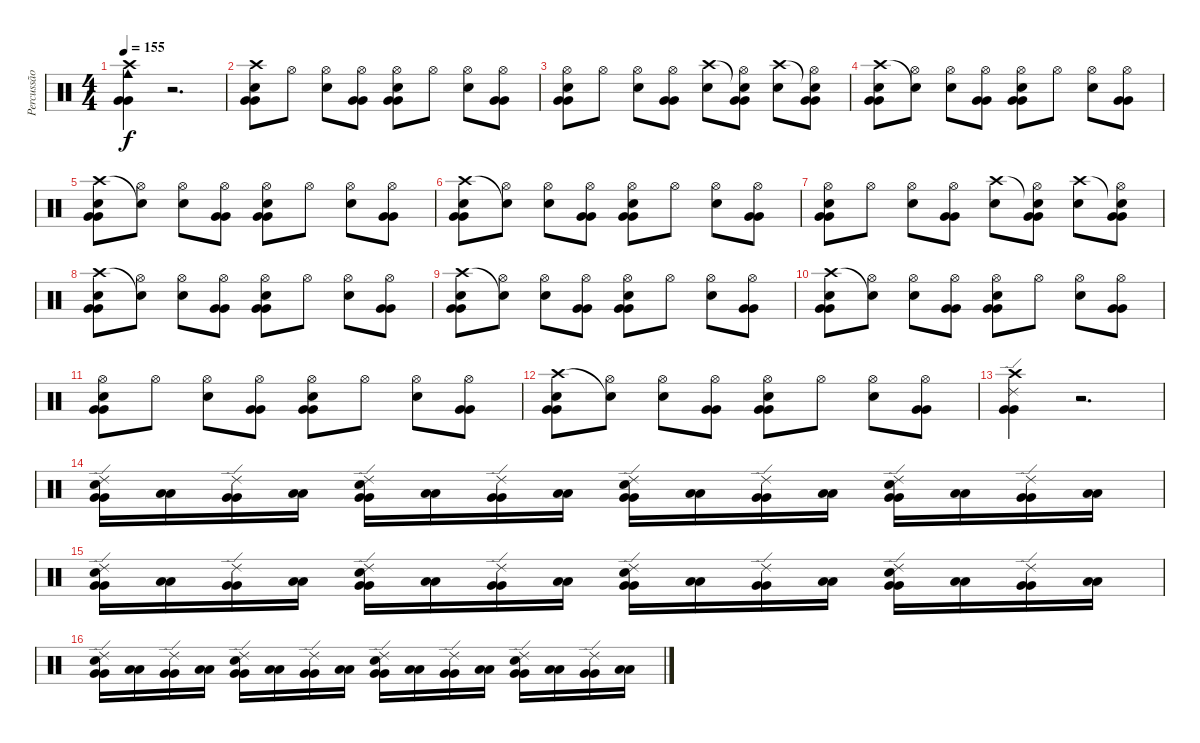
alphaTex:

\track ("Percussão" "Percussão") {instrument percussion}
\staff {score}
\articulation defaults
\ts (4 4)
\tempo 155
\clef neutral
\ks c
("Crash high (hit)" "Cowbell medium (hit)" "Very Low Tom (hit)" "Very Low Tom (hit)").4{dy f} r.2{d} |
("Crash high (hit)" "Electric Snare (hit)" "Very Low Tom (hit)" "Very Low Tom (hit)").8 "Hi-Hat (open)".8 ("Hi-Hat (open)" "Electric Snare (hit)").8 ("Hi-Hat (open)" "Very Low Tom (hit)" "Very Low Tom (hit)").8 ("Hi-Hat (open)" "Electric Snare (hit)" "Very Low Tom (hit)" "Very Low Tom (hit)").8 "Hi-Hat (open)".8 ("Hi-Hat (open)" "Electric Snare (hit)").8 ("Hi-Hat (open)" "Very Low Tom (hit)" "Very Low Tom (hit)").8 |
("Hi-Hat (open)" "Electric Snare (hit)" "Very Low Tom (hit)" "Very Low Tom (hit)").8 "Hi-Hat (open)".8 ("Hi-Hat (open)" "Electric Snare (hit)").8 ("Hi-Hat (open)" "Very Low Tom (hit)" "Very Low Tom (hit)").8 ("Crash high (hit)" "Electric Snare (hit)").8 ("Snare (hit)"{t} "Hi-Hat (open)" "Very Low Tom (hit)" "Very Low Tom (hit)").8 ("Crash high (hit)" "Electric Snare (hit)").8 ("Snare (hit)"{t} "Hi-Hat (open)" "Very Low Tom (hit)" "Very Low Tom (hit)").8 |
("Crash high (hit)" "Electric Snare (hit)" "Very Low Tom (hit)" "Very Low Tom (hit)").8 ("Snare (hit)"{t} "Hi-Hat (open)").8 ("Hi-Hat (open)" "Electric Snare (hit)").8 ("Hi-Hat (open)" "Very Low Tom (hit)" "Very Low Tom (hit)").8 ("Hi-Hat (open)" "Electric Snare (hit)" "Very Low Tom (hit)" "Very Low Tom (hit)").8 "Hi-Hat (open)".8 ("Hi-Hat (open)" "Electric Snare (hit)").8 ("Hi-Hat (open)" "Very Low Tom (hit)" "Very Low Tom (hit)").8 |
("Crash high (hit)" "Electric Snare (hit)" "Very Low Tom (hit)" "Very Low Tom (hit)").8 ("Snare (hit)"{t} "Hi-Hat (open)").8 ("Hi-Hat (open)" "Electric Snare (hit)").8 ("Hi-Hat (open)" "Very Low Tom (hit)" "Very Low Tom (hit)").8 ("Hi-Hat (open)" "Electric Snare (hit)" "Very Low Tom (hit)" "Very Low Tom (hit)").8 "Hi-Hat (open)".8 ("Hi-Hat (open)" "Electric Snare (hit)").8 ("Hi-Hat (open)" "Very Low Tom (hit)" "Very Low Tom (hit)").8 |
("Crash high (hit)" "Electric Snare (hit)" "Very Low Tom (hit)" "Very Low Tom (hit)").8 ("Snare (hit)"{t} "Hi-Hat (open)").8 ("Hi-Hat (open)" "Electric Snare (hit)").8 ("Hi-Hat (open)" "Very Low Tom (hit)" "Very Low Tom (hit)").8 ("Hi-Hat (open)" "Electric Snare (hit)" "Very Low Tom (hit)" "Very Low Tom (hit)").8 "Hi-Hat (open)".8 ("Hi-Hat (open)" "Electric Snare (hit)").8 ("Hi-Hat (open)" "Very Low Tom (hit)" "Very Low Tom (hit)").8 |
("Hi-Hat (open)" "Electric Snare (hit)" "Very Low Tom (hit)" "Very Low Tom (hit)").8 "Hi-Hat (open)".8 ("Hi-Hat (open)" "Electric Snare (hit)").8 ("Hi-Hat (open)" "Very Low Tom (hit)" "Very Low Tom (hit)").8 ("Crash high (hit)" "Electric Snare (hit)").8 ("Snare (hit)"{t} "Hi-Hat (open)" "Very Low Tom (hit)" "Very Low Tom (hit)").8 ("Crash high (hit)" "Electric Snare (hit)").8 ("Snare (hit)"{t} "Hi-Hat (open)" "Very Low Tom (hit)" "Very Low Tom (hit)").8 |
("Crash high (hit)" "Electric Snare (hit)" "Very Low Tom (hit)" "Very Low Tom (hit)").8 ("Snare (hit)"{t} "Hi-Hat (open)").8 ("Hi-Hat (open)" "Electric Snare (hit)").8 ("Hi-Hat (open)" "Very Low Tom (hit)" "Very Low Tom (hit)").8 ("Hi-Hat (open)" "Electric Snare (hit)" "Very Low Tom (hit)" "Very Low Tom (hit)").8 "Hi-Hat (open)".8 ("Hi-Hat (open)" "Electric Snare (hit)").8 ("Hi-Hat (open)" "Very Low Tom (hit)" "Very Low Tom (hit)").8 |
("Crash high (hit)" "Electric Snare (hit)" "Very Low Tom (hit)" "Very Low Tom (hit)").8 ("Snare (hit)"{t} "Hi-Hat (open)").8 ("Hi-Hat (open)" "Electric Snare (hit)").8 ("Hi-Hat (open)" "Very Low Tom (hit)" "Very Low Tom (hit)").8 ("Hi-Hat (open)" "Electric Snare (hit)" "Very Low Tom (hit)" "Very Low Tom (hit)").8 "Hi-Hat (open)".8 ("Hi-Hat (open)" "Electric Snare (hit)").8 ("Hi-Hat (open)" "Very Low Tom (hit)" "Very Low Tom (hit)").8 |
("Crash high (hit)" "Electric Snare (hit)" "Very Low Tom (hit)" "Very Low Tom (hit)").8 ("Snare (hit)"{t} "Hi-Hat (open)").8 ("Hi-Hat (open)" "Electric Snare (hit)").8 ("Hi-Hat (open)" "Very Low Tom (hit)" "Very Low Tom (hit)").8 ("Hi-Hat (open)" "Electric Snare (hit)" "Very Low Tom (hit)" "Very Low Tom (hit)").8 "Hi-Hat (open)".8 ("Hi-Hat (open)" "Electric Snare (hit)").8 ("Hi-Hat (open)" "Very Low Tom (hit)" "Very Low Tom (hit)").8 |
("Hi-Hat (open)" "Electric Snare (hit)" "Very Low Tom (hit)" "Very Low Tom (hit)").8 "Hi-Hat (open)".8 ("Hi-Hat (open)" "Electric Snare (hit)").8 ("Hi-Hat (open)" "Very Low Tom (hit)" "Very Low Tom (hit)").8 ("Hi-Hat (open)" "Electric Snare (hit)" "Very Low Tom (hit)" "Very Low Tom (hit)").8 "Hi-Hat (open)".8 ("Hi-Hat (open)" "Electric Snare (hit)").8 ("Hi-Hat (open)" "Very Low Tom (hit)" "Very Low Tom (hit)").8 |
("Crash high (hit)" "Electric Snare (hit)" "Very Low Tom (hit)" "Very Low Tom (hit)").8 ("Snare (hit)"{t} "Hi-Hat (open)").8 ("Hi-Hat (open)" "Electric Snare (hit)").8 ("Hi-Hat (open)" "Very Low Tom (hit)" "Very Low Tom (hit)").8 ("Hi-Hat (open)" "Electric Snare (hit)" "Very Low Tom (hit)" "Very Low Tom (hit)").8 "Hi-Hat (open)".8 ("Hi-Hat (open)" "Electric Snare (hit)").8 ("Hi-Hat (open)" "Very Low Tom (hit)" "Very Low Tom (hit)").8 |
("Crash high (hit)" "Ride (edge) 2" "Very Low Tom (hit)" "Very Low Tom (hit)").4 r.2{d} |
("Electric Snare (hit)" "Ride (edge) 2" "Very Low Tom (hit)" "Very Low Tom (hit)").16 ("Low Floor Tom (hit)" "Low Floor Tom (hit)").16 ("Ride (edge) 2" "Very Low Tom (hit)" "Very Low Tom (hit)").16 ("Low Floor Tom (hit)" "Low Floor Tom (hit)").16 ("Electric Snare (hit)" "Ride (edge) 2" "Very Low Tom (hit)" "Very Low Tom (hit)").16 ("Low Floor Tom (hit)" "Low Floor Tom (hit)").16 ("Ride (edge) 2" "Very Low Tom (hit)" "Very Low Tom (hit)").16 ("Low Floor Tom (hit)" "Low Floor Tom (hit)").16 ("Electric Snare (hit)" "Ride (edge) 2" "Very Low Tom (hit)" "Very Low Tom (hit)").16 ("Low Floor Tom (hit)" "Low Floor Tom (hit)").16 ("Ride (edge) 2" "Very Low Tom (hit)" "Very Low Tom (hit)").16 ("Low Floor Tom (hit)" "Low Floor Tom (hit)").16 ("Electric Snare (hit)" "Ride (edge) 2" "Very Low Tom (hit)" "Very Low Tom (hit)").16 ("Low Floor Tom (hit)" "Low Floor Tom (hit)").16 ("Ride (edge) 2" "Very Low Tom (hit)" "Very Low Tom (hit)").16 ("Low Floor Tom (hit)" "Low Floor Tom (hit)").16 |
("Electric Snare (hit)" "Ride (edge) 2" "Very Low Tom (hit)" "Very Low Tom (hit)").16 ("Low Floor Tom (hit)" "Low Floor Tom (hit)").16 ("Ride (edge) 2" "Very Low Tom (hit)" "Very Low Tom (hit)").16 ("Low Floor Tom (hit)" "Low Floor Tom (hit)").16 ("Electric Snare (hit)" "Ride (edge) 2" "Very Low Tom (hit)" "Very Low Tom (hit)").16 ("Low Floor Tom (hit)" "Low Floor Tom (hit)").16 ("Ride (edge) 2" "Very Low Tom (hit)" "Very Low Tom (hit)").16 ("Low Floor Tom (hit)" "Low Floor Tom (hit)").16 ("Electric Snare (hit)" "Ride (edge) 2" "Very Low Tom (hit)" "Very Low Tom (hit)").16 ("Low Floor Tom (hit)" "Low Floor Tom (hit)").16 ("Ride (edge) 2" "Very Low Tom (hit)" "Very Low Tom (hit)").16 ("Low Floor Tom (hit)" "Low Floor Tom (hit)").16 ("Electric Snare (hit)" "Ride (edge) 2" "Very Low Tom (hit)" "Very Low Tom (hit)").16 ("Low Floor Tom (hit)" "Low Floor Tom (hit)").16 ("Ride (edge) 2" "Very Low Tom (hit)" "Very Low Tom (hit)").16 ("Low Floor Tom (hit)" "Low Floor Tom (hit)").16 |
("Electric Snare (hit)" "Ride (edge) 2" "Very Low Tom (hit)" "Very Low Tom (hit)").16 ("Low Floor Tom (hit)" "Low Floor Tom (hit)").16 ("Ride (edge) 2" "Very Low Tom (hit)" "Very Low Tom (hit)").16 ("Low Floor Tom (hit)" "Low Floor Tom (hit)").16 ("Electric Snare (hit)" "Ride (edge) 2" "Very Low Tom (hit)" "Very Low Tom (hit)").16 ("Low Floor Tom (hit)" "Low Floor Tom (hit)").16 ("Ride (edge) 2" "Very Low Tom (hit)" "Very Low Tom (hit)").16 ("Low Floor Tom (hit)" "Low Floor Tom (hit)").16 ("Electric Snare (hit)" "Ride (edge) 2" "Very Low Tom (hit)" "Very Low Tom (hit)").16 ("Low Floor Tom (hit)" "Low Floor Tom (hit)").16 ("Ride (edge) 2" "Very Low Tom (hit)" "Very Low Tom (hit)").16 ("Low Floor Tom (hit)" "Low Floor Tom (hit)").16 ("Electric Snare (hit)" "Ride (edge) 2" "Very Low Tom (hit)" "Very Low Tom (hit)").16 ("Low Floor Tom (hit)" "Low Floor Tom (hit)").16 ("Ride (edge) 2" "Very Low Tom (hit)" "Very Low Tom (hit)").16 ("Low Floor Tom (hit)" "Low Floor Tom (hit)").16
